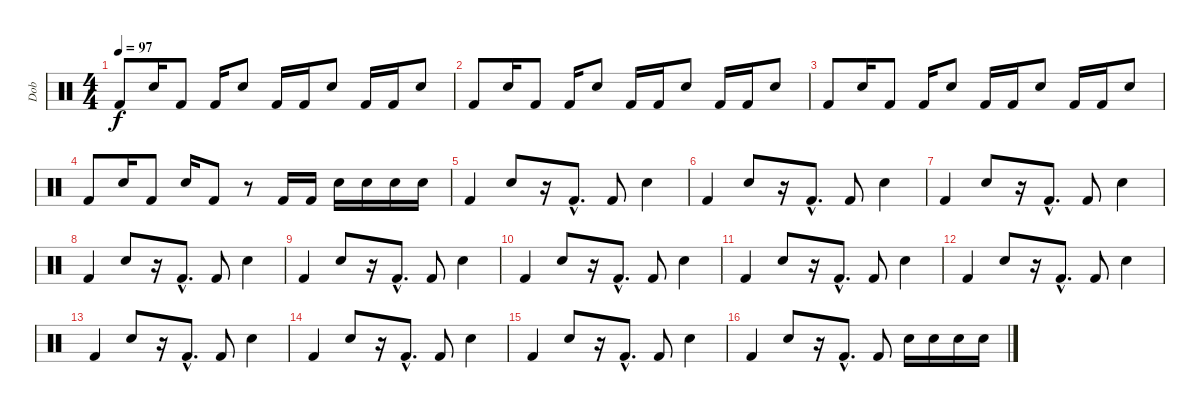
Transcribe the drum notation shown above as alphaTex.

\track ("Dob" "Dob") {instrument percussion}
\staff {score}
\articulation defaults
\ts (4 4)
\tempo 97
\clef neutral
\ks c "Kick (hit) 2".8{dy f} "Snare (hit) 2".16 "Kick (hit) 2".8 "Kick (hit) 2".16 "Snare (hit) 2".8 "Kick (hit) 2".16 "Kick (hit) 2".16 "Snare (hit) 2".8 "Kick (hit) 2".16 "Kick (hit) 2".16 "Snare (hit) 2".8
|
"Kick (hit) 2".8 "Snare (hit) 2".16 "Kick (hit) 2".8 "Kick (hit) 2".16 "Snare (hit) 2".8 "Kick (hit) 2".16 "Kick (hit) 2".16 "Snare (hit) 2".8 "Kick (hit) 2".16 "Kick (hit) 2".16 "Snare (hit) 2".8 |
"Kick (hit) 2".8 "Snare (hit) 2".16 "Kick (hit) 2".8 "Kick (hit) 2".16 "Snare (hit) 2".8 "Kick (hit) 2".16 "Kick (hit) 2".16 "Snare (hit) 2".8 "Kick (hit) 2".16 "Kick (hit) 2".16 "Snare (hit) 2".8 |
"Kick (hit) 2".8 "Snare (hit) 2".16 "Kick (hit) 2".8 "Snare (hit) 2".16 "Kick (hit) 2".8 r.8 "Kick (hit) 2".16 "Kick (hit) 2".16 "Snare (hit) 2".16 "Snare (hit) 2".16 "Snare (hit) 2".16 "Snare (hit) 2".16 |
"Kick (hit) 2".4 "Snare (hit) 2".8 r.16 "Kick (hit) 2"{hac}.8{d} "Kick (hit) 2".8 "Snare (hit) 2".4 |
"Kick (hit) 2".4 "Snare (hit) 2".8 r.16 "Kick (hit) 2"{hac}.8{d} "Kick (hit) 2".8 "Snare (hit) 2".4 |
"Kick (hit) 2".4 "Snare (hit) 2".8 r.16 "Kick (hit) 2"{hac}.8{d} "Kick (hit) 2".8 "Snare (hit) 2".4 |
"Kick (hit) 2".4 "Snare (hit) 2".8 r.16 "Kick (hit) 2"{hac}.8{d} "Kick (hit) 2".8 "Snare (hit) 2".4 |
"Kick (hit) 2".4 "Snare (hit) 2".8 r.16 "Kick (hit) 2"{hac}.8{d} "Kick (hit) 2".8 "Snare (hit) 2".4 |
"Kick (hit) 2".4 "Snare (hit) 2".8 r.16 "Kick (hit) 2"{hac}.8{d} "Kick (hit) 2".8 "Snare (hit) 2".4 |
"Kick (hit) 2".4 "Snare (hit) 2".8 r.16 "Kick (hit) 2"{hac}.8{d} "Kick (hit) 2".8 "Snare (hit) 2".4 |
"Kick (hit) 2".4 "Snare (hit) 2".8 r.16 "Kick (hit) 2"{hac}.8{d} "Kick (hit) 2".8 "Snare (hit) 2".4 |
"Kick (hit) 2".4 "Snare (hit) 2".8 r.16 "Kick (hit) 2"{hac}.8{d} "Kick (hit) 2".8 "Snare (hit) 2".4 |
"Kick (hit) 2".4 "Snare (hit) 2".8 r.16 "Kick (hit) 2"{hac}.8{d} "Kick (hit) 2".8 "Snare (hit) 2".4 |
"Kick (hit) 2".4 "Snare (hit) 2".8 r.16 "Kick (hit) 2"{hac}.8{d} "Kick (hit) 2".8 "Snare (hit) 2".4 |
"Kick (hit) 2".4 "Snare (hit) 2".8 r.16 "Kick (hit) 2"{hac}.8{d} "Kick (hit) 2".8 "Snare (hit) 2".16 "Snare (hit) 2".16 "Snare (hit) 2".16 "Snare (hit) 2".16
